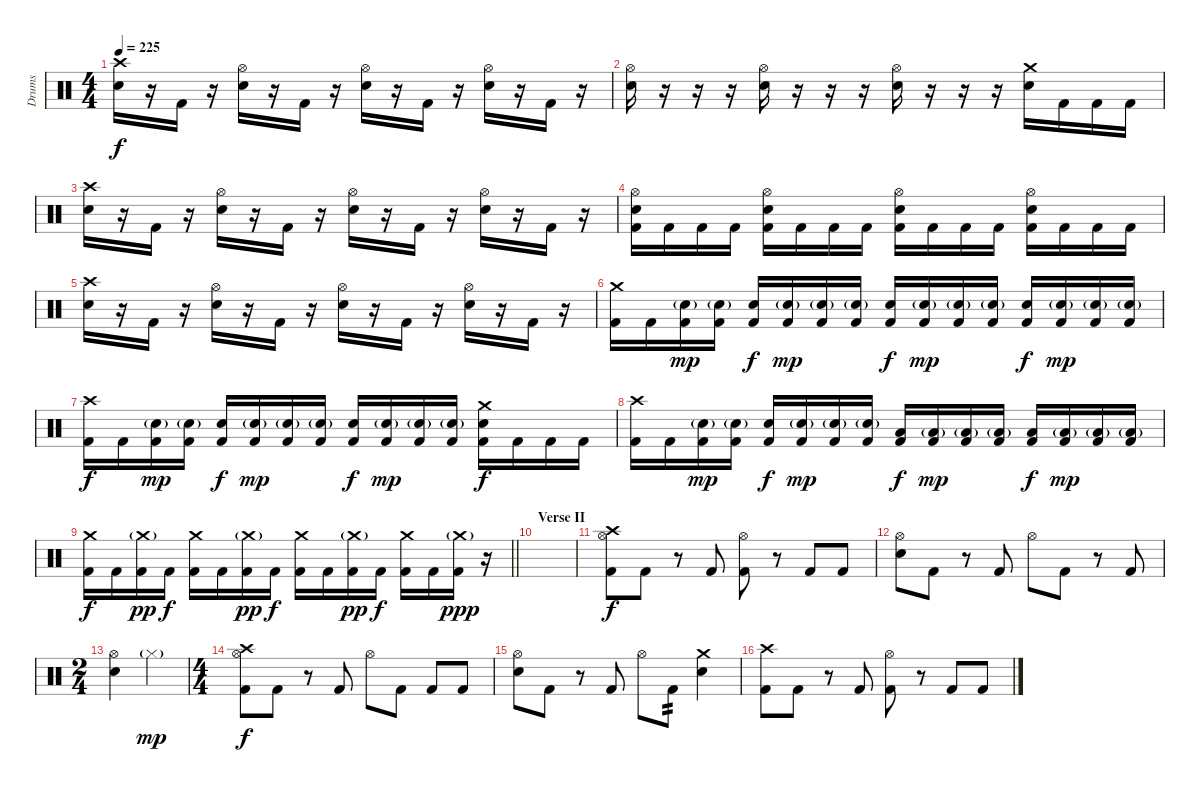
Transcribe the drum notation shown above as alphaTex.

\track ("Drums" "Drums") {instrument percussion}
\staff {score}
\articulation defaults
\ts (4 4)
\tempo 225
\clef neutral
\ks c
("Crash high (hit)" "Electric Snare (hit)").16{dy f} r.16 "Kick (hit) 2".16 r.16 ("Hi-Hat (open)" "Electric Snare (hit)").16 r.16 "Kick (hit) 2".16 r.16 ("Hi-Hat (open)" "Electric Snare (hit)").16 r.16 "Kick (hit) 2".16 r.16 ("Hi-Hat (open)" "Electric Snare (hit)").16 r.16 "Kick (hit) 2".16 r.16 |
("Hi-Hat (open)" "Electric Snare (hit)").16 r.16 r.16 r.16 ("Hi-Hat (open)" "Electric Snare (hit)").16 r.16 r.16 r.16 ("Hi-Hat (open)" "Electric Snare (hit)").16 r.16 r.16 r.16 ("Crash medium (hit)" "Electric Snare (hit)").16 "Kick (hit) 2".16 "Kick (hit) 2".16 "Kick (hit) 2".16 |
("Crash high (hit)" "Electric Snare (hit)").16 r.16 "Kick (hit) 2".16 r.16 ("Hi-Hat (open)" "Electric Snare (hit)").16 r.16 "Kick (hit) 2".16 r.16 ("Hi-Hat (open)" "Electric Snare (hit)").16 r.16 "Kick (hit) 2".16 r.16 ("Hi-Hat (open)" "Electric Snare (hit)").16 r.16 "Kick (hit) 2".16 r.16 |
("Hi-Hat (open)" "Electric Snare (hit)" "Kick (hit) 2").16 "Kick (hit) 2".16 "Kick (hit) 2".16 "Kick (hit) 2".16 ("Hi-Hat (open)" "Electric Snare (hit)" "Kick (hit) 2").16 "Kick (hit) 2".16 "Kick (hit) 2".16 "Kick (hit) 2".16 ("Hi-Hat (open)" "Electric Snare (hit)" "Kick (hit) 2").16 "Kick (hit) 2".16 "Kick (hit) 2".16 "Kick (hit) 2".16 ("Hi-Hat (open)" "Electric Snare (hit)" "Kick (hit) 2").16 "Kick (hit) 2".16 "Kick (hit) 2".16 "Kick (hit) 2".16 |
("Crash high (hit)" "Electric Snare (hit)").16 r.16 "Kick (hit) 2".16 r.16 ("Hi-Hat (open)" "Electric Snare (hit)").16 r.16 "Kick (hit) 2".16 r.16 ("Hi-Hat (open)" "Electric Snare (hit)").16 r.16 "Kick (hit) 2".16 r.16 ("Hi-Hat (open)" "Electric Snare (hit)").16 r.16 "Kick (hit) 2".16 r.16 |
("Crash medium (hit)" "Kick (hit) 2").16 "Kick (hit) 2".16 ("Electric Snare (hit)"{g} "Kick (hit) 2").16{dy mp} ("Electric Snare (hit)"{g} "Kick (hit) 2").16 ("Electric Snare (hit)" "Kick (hit) 2").16{dy f} ("Electric Snare (hit)"{g} "Kick (hit) 2").16{dy mp} ("Electric Snare (hit)"{g} "Kick (hit) 2").16 ("Electric Snare (hit)"{g} "Kick (hit) 2").16 ("Electric Snare (hit)" "Kick (hit) 2").16{dy f} ("Electric Snare (hit)"{g} "Kick (hit) 2").16{dy mp} ("Electric Snare (hit)"{g} "Kick (hit) 2").16 ("Electric Snare (hit)"{g} "Kick (hit) 2").16 ("Electric Snare (hit)" "Kick (hit) 2").16{dy f} ("Electric Snare (hit)"{g} "Kick (hit) 2").16{dy mp} ("Electric Snare (hit)"{g} "Kick (hit) 2").16 ("Electric Snare (hit)"{g} "Kick (hit) 2").16 |
("Crash high (hit)" "Kick (hit) 2").16{dy f} "Kick (hit) 2".16 ("Electric Snare (hit)"{g} "Kick (hit) 2").16{dy mp} ("Electric Snare (hit)"{g} "Kick (hit) 2").16 ("Electric Snare (hit)" "Kick (hit) 2").16{dy f} ("Electric Snare (hit)"{g} "Kick (hit) 2").16{dy mp} ("Electric Snare (hit)"{g} "Kick (hit) 2").16 ("Electric Snare (hit)"{g} "Kick (hit) 2").16 ("Electric Snare (hit)" "Kick (hit) 2").16{dy f} ("Electric Snare (hit)"{g} "Kick (hit) 2").16{dy mp} ("Electric Snare (hit)"{g} "Kick (hit) 2").16 ("Electric Snare (hit)"{g} "Kick (hit) 2").16 ("Crash medium (hit)" "Electric Snare (hit)" "Kick (hit) 2").16{dy f} "Kick (hit) 2".16 "Kick (hit) 2".16 "Kick (hit) 2".16 |
("Crash high (hit)" "Kick (hit) 2").16 "Kick (hit) 2".16 ("Electric Snare (hit)"{g} "Kick (hit) 2").16{dy mp} ("Electric Snare (hit)"{g} "Kick (hit) 2").16 ("Electric Snare (hit)" "Kick (hit) 2").16{dy f} ("Electric Snare (hit)"{g} "Kick (hit) 2").16{dy mp} ("Electric Snare (hit)"{g} "Kick (hit) 2").16 ("Electric Snare (hit)"{g} "Kick (hit) 2").16 ("Low Tom (hit)" "Kick (hit) 2").16{dy f} ("Low Tom (hit)"{g} "Kick (hit) 2").16{dy mp} ("Low Tom (hit)"{g} "Kick (hit) 2").16 ("Low Tom (hit)"{g} "Kick (hit) 2").16 ("Low Tom (hit)" "Kick (hit) 2").16{dy f} ("Low Tom (hit)"{g} "Kick (hit) 2").16{dy mp} ("Low Tom (hit)"{g} "Kick (hit) 2").16 ("Low Tom (hit)"{g} "Kick (hit) 2").16 |
\barLineRight lightlight
("Crash medium (hit)" "Kick (hit) 2").16{dy f} "Kick (hit) 2".16 ("Crash medium (hit)"{g} "Kick (hit) 2").16{dy pp} "Kick (hit) 2".16{dy f} ("Crash medium (hit)" "Kick (hit) 2").16 "Kick (hit) 2".16 ("Crash medium (hit)"{g} "Kick (hit) 2").16{dy pp} "Kick (hit) 2".16{dy f} ("Crash medium (hit)" "Kick (hit) 2").16 "Kick (hit) 2".16 ("Crash medium (hit)"{g} "Kick (hit) 2").16{dy pp} "Kick (hit) 2".16{dy f} ("Crash medium (hit)" "Kick (hit) 2").16 "Kick (hit) 2".16 ("Crash medium (hit)"{g} "Kick (hit) 2").16{dy ppp} r.16 |
\section ("" "Verse II")
|
("Crash high (hit)" "Hi-Hat (open)" "Kick (hit) 2").8{dy f} "Kick (hit) 2".8 r.8 "Kick (hit) 2".8 ("Hi-Hat (open)" "Kick (hit) 2").8 r.8 "Kick (hit) 2".8 "Kick (hit) 2".8 |
("Hi-Hat (open)" "Electric Snare (hit)").8 "Kick (hit) 2".8 r.8 "Kick (hit) 2".8 "Hi-Hat (open)".8 "Kick (hit) 2".8 r.8 "Kick (hit) 2".8 |
\ts (2 4)
("Hi-Hat (open)" "Electric Snare (hit)").4 "Hi-Hat (closed)"{g}.4{dy mp} |
\ts (4 4)
("Crash high (hit)" "Hi-Hat (open)" "Kick (hit) 2").8{dy f} "Kick (hit) 2".8 r.8 "Kick (hit) 2".8 "Hi-Hat (open)".8 "Kick (hit) 2".8 "Kick (hit) 2".8 "Kick (hit) 2".8 |
("Hi-Hat (open)" "Electric Snare (hit)").8 "Kick (hit) 2".8 r.8 "Kick (hit) 2".8 "Hi-Hat (open)".8 "Kick (hit) 2".8{tp 2} ("Crash medium (hit)" "Electric Snare (hit)").4 |
("Crash high (hit)" "Kick (hit) 2").8 "Kick (hit) 2".8 r.8 "Kick (hit) 2".8 ("Hi-Hat (open)" "Kick (hit) 2").8 r.8 "Kick (hit) 2".8 "Kick (hit) 2".8
